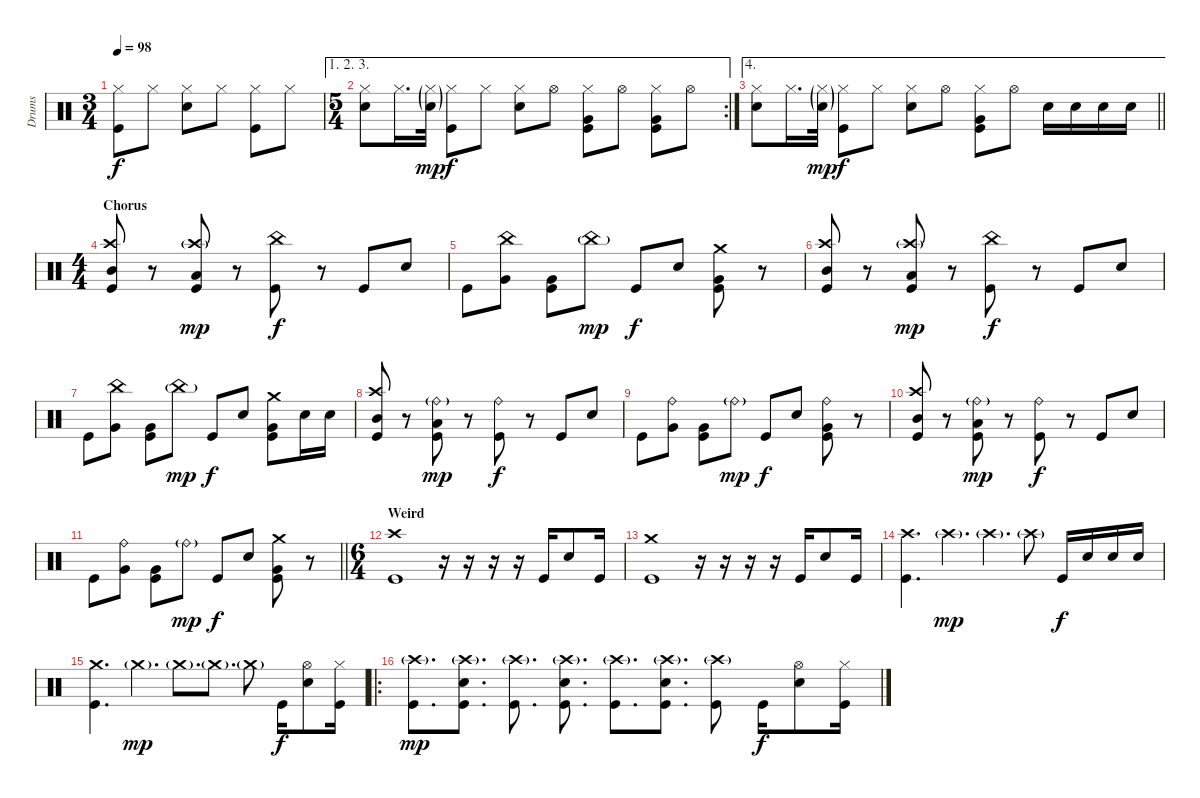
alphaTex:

\track ("Drums" "Drums") {instrument percussion}
\staff {score}
\articulation defaults
\ts (3 4)
\tempo 98
\clef neutral
\ks c
("Hi-Hat (closed)" "Kick (hit)").8{dy f} "Hi-Hat (closed)".8 ("Hi-Hat (closed)" "Electric Snare (hit)").8 "Hi-Hat (closed)".8 ("Hi-Hat (closed)" "Kick (hit)").8 "Hi-Hat (closed)".8 |
\ae (1 2 3)
\rc 2
\ts (5 4)
("Hi-Hat (closed)" "Electric Snare (hit)").8 "Hi-Hat (closed)".16{d} ("Hi-Hat (closed)"{g} "Electric Snare (hit)"{g}).32{dy mp} ("Hi-Hat (closed)" "Kick (hit)").8{dy f} "Hi-Hat (closed)".8 ("Hi-Hat (closed)" "Electric Snare (hit)").8 "Hi-Hat (open)".8 ("Hi-Hat (closed)" "Very Low Tom (hit)" "Kick (hit)").8 "Hi-Hat (open)".8 ("Hi-Hat (closed)" "Very Low Tom (hit)" "Kick (hit)").8 "Hi-Hat (open)".8 |
\ae 4
\barLineRight lightlight
("Hi-Hat (closed)" "Electric Snare (hit)").8 "Hi-Hat (closed)".16{d} ("Hi-Hat (closed)"{g} "Electric Snare (hit)"{g}).32{dy mp} ("Hi-Hat (closed)" "Kick (hit)").8{dy f} "Hi-Hat (closed)".8 ("Hi-Hat (closed)" "Electric Snare (hit)").8 "Hi-Hat (open)".8 ("Hi-Hat (closed)" "Very Low Tom (hit)" "Kick (hit)").8 "Hi-Hat (open)".8 "Electric Snare (hit)".16 "Electric Snare (hit)".16 "Electric Snare (hit)".16 "Electric Snare (hit)".16 |
\ts (4 4)
\section ("" "Chorus")
("Crash high (hit)" "Mid Tom (hit)" "Kick (hit)").8 r.8 ("Crash high (hit)"{g} "Low Tom (hit)" "Kick (hit)").8{dy mp} r.8 ("China (hit)" "Kick (hit)").8{dy f} r.8 "Kick (hit)".8 "Electric Snare (hit)".8 |
"Kick (hit)".8 ("China (hit)" "Very Low Tom (hit)").8 ("Very Low Tom (hit)" "Kick (hit)").8 "China (hit)"{g}.8{dy mp} "Kick (hit)".8{dy f} "Electric Snare (hit)".8 ("Crash medium (hit)" "Very Low Tom (hit)" "Kick (hit)").8 r.8 |
("Crash high (hit)" "Mid Tom (hit)" "Kick (hit)").8 r.8 ("Crash high (hit)"{g} "Low Tom (hit)" "Kick (hit)").8{dy mp} r.8 ("China (hit)" "Kick (hit)").8{dy f} r.8 "Kick (hit)".8 "Electric Snare (hit)".8 |
"Kick (hit)".8 ("China (hit)" "Very Low Tom (hit)").8 ("Very Low Tom (hit)" "Kick (hit)").8 "China (hit)"{g}.8{dy mp} "Kick (hit)".8{dy f} "Electric Snare (hit)".8 ("Crash medium (hit)" "Very Low Tom (hit)" "Kick (hit)").8 "Electric Snare (hit)".16 "Electric Snare (hit)".16 |
("Crash high (hit)" "Mid Tom (hit)" "Kick (hit)").8 r.8 ("Ride (bell)"{g} "Low Tom (hit)" "Kick (hit)").8{dy mp} r.8 ("Ride (bell)" "Kick (hit)").8{dy f} r.8 "Kick (hit)".8 "Electric Snare (hit)".8 |
"Kick (hit)".8 ("Ride (bell)" "Very Low Tom (hit)").8 ("Very Low Tom (hit)" "Kick (hit)").8 "Ride (bell)"{g}.8{dy mp} "Kick (hit)".8{dy f} "Electric Snare (hit)".8 ("Ride (bell)" "Very Low Tom (hit)" "Kick (hit)").8 r.8 |
("Crash high (hit)" "Mid Tom (hit)" "Kick (hit)").8 r.8 ("Ride (bell)"{g} "Low Tom (hit)" "Kick (hit)").8{dy mp} r.8 ("Ride (bell)" "Kick (hit)").8{dy f} r.8 "Kick (hit)".8 "Electric Snare (hit)".8 |
\barLineRight lightlight "Kick (hit)".8
("Ride (bell)" "Very Low Tom (hit)").8 ("Very Low Tom (hit)" "Kick (hit)").8 "Ride (bell)"{g}.8{dy mp} "Kick (hit)".8{dy f} "Electric Snare (hit)".8 ("Crash medium (hit)" "Very Low Tom (hit)" "Kick (hit)").8 r.8 |
\ts (6 4)
\section ("" "Weird")
("Crash high (hit)" "Kick (hit)").1 r.16 r.16 r.16 r.16 "Kick (hit)".16 "Electric Snare (hit)".8 "Kick (hit)".16 |
("Crash medium (hit)" "Kick (hit)").1 r.16 r.16 r.16 r.16 "Kick (hit)".16 "Electric Snare (hit)".8 "Kick (hit)".16 |
("Crash high (hit)" "Kick (hit)").4{d} "Crash high (hit)"{g}.4{d dy mp} "Crash high (hit)"{g}.4{d} "Crash high (hit)"{g}.8 "Kick (hit)".16{dy f} "Electric Snare (hit)".16 "Electric Snare (hit)".16 "Electric Snare (hit)".16 |
("Crash medium (hit)" "Kick (hit)").4{d} "Crash medium (hit)"{g}.4{d dy mp} "Crash medium (hit)"{g}.8{d} "Crash medium (hit)"{g}.8{d} "Crash medium (hit)"{g}.8 "Kick (hit)".16{dy f} ("Hi-Hat (open)" "Electric Snare (hit)").8 ("Hi-Hat (closed)" "Kick (hit)").16 |
\ro
("Crash high (hit)"{g} "Kick (hit)").8{d dy mp} ("Crash high (hit)"{g} "Electric Snare (hit)" "Kick (hit)").8{d} ("Crash high (hit)"{g} "Kick (hit)").8{d} ("Crash high (hit)"{g} "Electric Snare (hit)" "Kick (hit)").8{d} ("Crash high (hit)"{g} "Kick (hit)").8{d} ("Crash high (hit)"{g} "Electric Snare (hit)" "Kick (hit)").8{d} ("Crash high (hit)"{g} "Kick (hit)").8 "Kick (hit)".16{dy f} ("Hi-Hat (open)" "Electric Snare (hit)").8 ("Hi-Hat (closed)" "Kick (hit)").16
